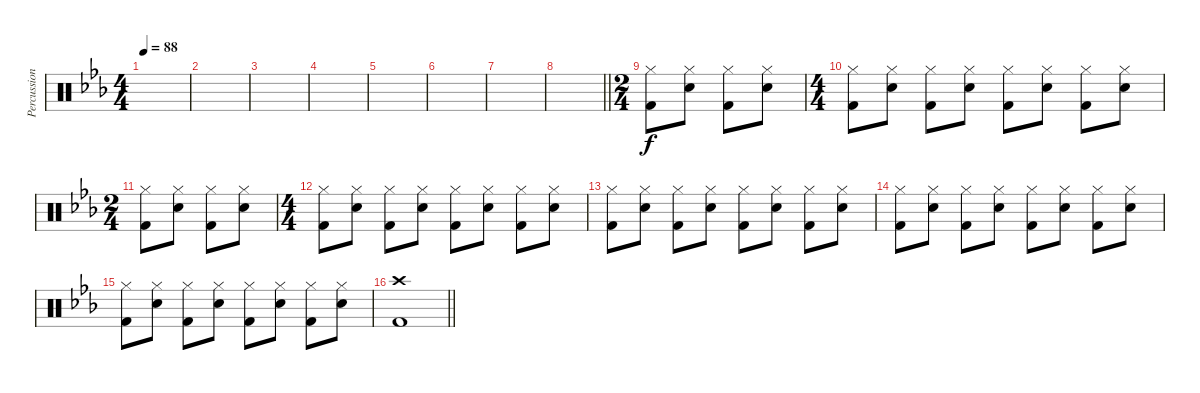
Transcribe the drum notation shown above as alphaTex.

\track ("Percussion" "Percussion") {instrument percussion}
\staff {score}
\articulation defaults
\ts (4 4)
\tempo 88
\clef neutral
\ks eb
|
|
|
|
|
|
|
\barLineRight lightlight
|
\ts (2 4)
("Hi-Hat (closed)" "Kick (hit) 2").8 ("Hi-Hat (closed)" "Snare (hit) 2").8 ("Hi-Hat (closed)" "Kick (hit) 2").8 ("Hi-Hat (closed)" "Snare (hit) 2").8 |
\ts (4 4)
("Hi-Hat (closed)" "Kick (hit) 2").8 ("Hi-Hat (closed)" "Snare (hit) 2").8 ("Hi-Hat (closed)" "Kick (hit) 2").8 ("Hi-Hat (closed)" "Snare (hit) 2").8 ("Hi-Hat (closed)" "Kick (hit) 2").8 ("Hi-Hat (closed)" "Snare (hit) 2").8 ("Hi-Hat (closed)" "Kick (hit) 2").8 ("Hi-Hat (closed)" "Snare (hit) 2").8 |
\ts (2 4)
("Hi-Hat (closed)" "Kick (hit) 2").8 ("Hi-Hat (closed)" "Snare (hit) 2").8 ("Hi-Hat (closed)" "Kick (hit) 2").8 ("Hi-Hat (closed)" "Snare (hit) 2").8 |
\ts (4 4)
("Hi-Hat (closed)" "Kick (hit) 2").8 ("Hi-Hat (closed)" "Snare (hit) 2").8 ("Hi-Hat (closed)" "Kick (hit) 2").8 ("Hi-Hat (closed)" "Snare (hit) 2").8 ("Hi-Hat (closed)" "Kick (hit) 2").8 ("Hi-Hat (closed)" "Snare (hit) 2").8 ("Hi-Hat (closed)" "Kick (hit) 2").8 ("Hi-Hat (closed)" "Snare (hit) 2").8 |
("Hi-Hat (closed)" "Kick (hit) 2").8 ("Hi-Hat (closed)" "Snare (hit) 2").8 ("Hi-Hat (closed)" "Kick (hit) 2").8 ("Hi-Hat (closed)" "Snare (hit) 2").8 ("Hi-Hat (closed)" "Kick (hit) 2").8 ("Hi-Hat (closed)" "Snare (hit) 2").8 ("Hi-Hat (closed)" "Kick (hit) 2").8 ("Hi-Hat (closed)" "Snare (hit) 2").8 |
("Hi-Hat (closed)" "Kick (hit) 2").8 ("Hi-Hat (closed)" "Snare (hit) 2").8 ("Hi-Hat (closed)" "Kick (hit) 2").8 ("Hi-Hat (closed)" "Snare (hit) 2").8 ("Hi-Hat (closed)" "Kick (hit) 2").8 ("Hi-Hat (closed)" "Snare (hit) 2").8 ("Hi-Hat (closed)" "Kick (hit) 2").8 ("Hi-Hat (closed)" "Snare (hit) 2").8 |
("Hi-Hat (closed)" "Kick (hit) 2").8 ("Hi-Hat (closed)" "Snare (hit) 2").8 ("Hi-Hat (closed)" "Kick (hit) 2").8 ("Hi-Hat (closed)" "Snare (hit) 2").8 ("Hi-Hat (closed)" "Kick (hit) 2").8 ("Hi-Hat (closed)" "Snare (hit) 2").8 ("Hi-Hat (closed)" "Kick (hit) 2").8 ("Hi-Hat (closed)" "Snare (hit) 2").8 |
\barLineRight lightlight
("Crash high (hit)" "Kick (hit) 2").1
